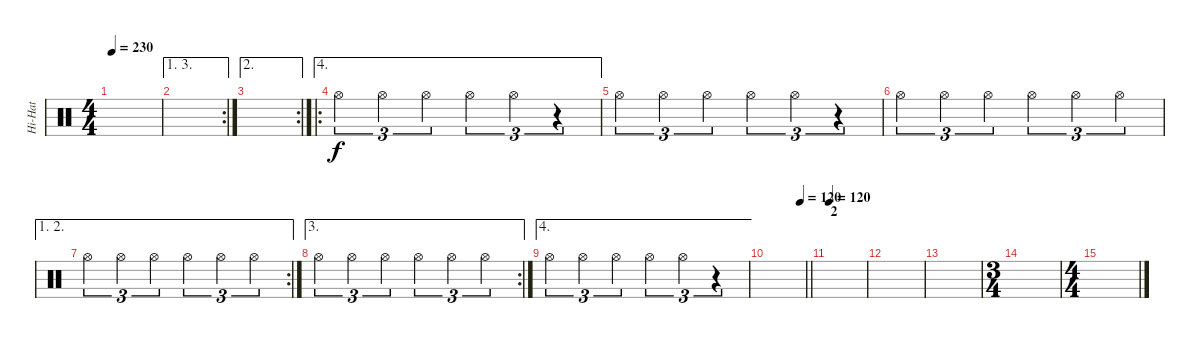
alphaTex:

\track ("Hi-Hat" "Hi-Hat") {instrument percussion}
\staff {score}
\articulation defaults
\ts (4 4)
\tempo 230
\clef neutral
\ks c
|
\ae (1 3)
\rc 2
|
\ae 2
\rc 2
|
\ae 4
\ro "Hi-Hat (open)".4{tu (3 2)} "Hi-Hat (open)".4{tu (3 2)} "Hi-Hat (open)".4{tu (3 2)} "Hi-Hat (open)".4{tu (3 2)} "Hi-Hat (open)".4{tu (3 2)}
r.4{tu (3 2)} |
"Hi-Hat (open)".4{tu (3 2)} "Hi-Hat (open)".4{tu (3 2)} "Hi-Hat (open)".4{tu (3 2)} "Hi-Hat (open)".4{tu (3 2)} "Hi-Hat (open)".4{tu (3 2)} r.4{tu (3 2)} |
"Hi-Hat (open)".4{tu (3 2)} "Hi-Hat (open)".4{tu (3 2)} "Hi-Hat (open)".4{tu (3 2)} "Hi-Hat (open)".4{tu (3 2)} "Hi-Hat (open)".4{tu (3 2)} "Hi-Hat (open)".4{tu (3 2)} |
\ae (1 2)
\rc 2 "Hi-Hat (open)".4{tu (3 2)} "Hi-Hat (open)".4{tu (3 2)} "Hi-Hat (open)".4{tu (3 2)} "Hi-Hat (open)".4{tu (3 2)} "Hi-Hat (open)".4{tu (3 2)} "Hi-Hat (open)".4{tu (3 2)}
|
\ae 3
\rc 2 "Hi-Hat (open)".4{tu (3 2)} "Hi-Hat (open)".4{tu (3 2)} "Hi-Hat (open)".4{tu (3 2)} "Hi-Hat (open)".4{tu (3 2)} "Hi-Hat (open)".4{tu (3 2)} "Hi-Hat (open)".4{tu (3 2)}
|
\ae 4 "Hi-Hat (open)".4{tu (3 2)} "Hi-Hat (open)".4{tu (3 2)} "Hi-Hat (open)".4{tu (3 2)} "Hi-Hat (open)".4{tu (3 2)} "Hi-Hat (open)".4{tu (3 2)}
r.4{tu (3 2)} |
\tempo (120 0.875)
\barLineRight lightlight
|
\section ("" "2")
\tempo 110
\tempo 120
|
|
|
\ts (3 4)
|
\ts (4 4)
